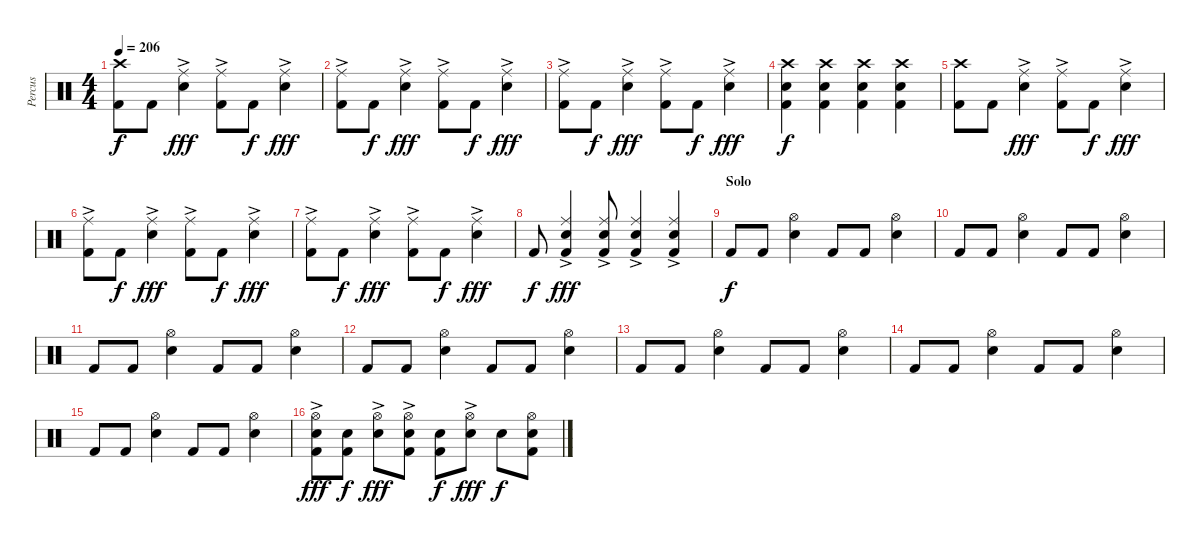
\track ("Percus" "Percus") {instrument percussion}
\staff {score}
\articulation defaults
\ts (4 4)
\tempo 206
\clef neutral
\ks c
("Crash high (hit)" "Kick (hit) 2").8{dy f} "Kick (hit) 2".8 ("Ride (middle)"{ac} "Snare (hit) 2").4{dy fff} ("Ride (middle)"{ac} "Kick (hit) 2").8 "Kick (hit) 2".8{dy f} ("Ride (middle)"{ac} "Snare (hit) 2").4{dy fff} |
("Ride (middle)"{ac} "Kick (hit) 2").8 "Kick (hit) 2".8{dy f} ("Ride (middle)"{ac} "Snare (hit) 2").4{dy fff} ("Ride (middle)"{ac} "Kick (hit) 2").8 "Kick (hit) 2".8{dy f} ("Ride (middle)"{ac} "Snare (hit) 2").4{dy fff} |
("Ride (middle)"{ac} "Kick (hit) 2").8 "Kick (hit) 2".8{dy f} ("Ride (middle)"{ac} "Snare (hit) 2").4{dy fff} ("Ride (middle)"{ac} "Kick (hit) 2").8 "Kick (hit) 2".8{dy f} ("Ride (middle)"{ac} "Snare (hit) 2").4{dy fff} |
("Crash high (hit)" "Snare (hit) 2" "Kick (hit) 2").4{dy f} ("Crash high (hit)" "Snare (hit) 2" "Kick (hit) 2").4 ("Crash high (hit)" "Snare (hit) 2" "Kick (hit) 2").4 ("Crash high (hit)" "Snare (hit) 2" "Kick (hit) 2").4 |
("Crash high (hit)" "Kick (hit) 2").8 "Kick (hit) 2".8 ("Ride (middle)"{ac} "Snare (hit) 2").4{dy fff} ("Ride (middle)"{ac} "Kick (hit) 2").8 "Kick (hit) 2".8{dy f} ("Ride (middle)"{ac} "Snare (hit) 2").4{dy fff} |
("Ride (middle)"{ac} "Kick (hit) 2").8 "Kick (hit) 2".8{dy f} ("Ride (middle)"{ac} "Snare (hit) 2").4{dy fff} ("Ride (middle)"{ac} "Kick (hit) 2").8 "Kick (hit) 2".8{dy f} ("Ride (middle)"{ac} "Snare (hit) 2").4{dy fff} |
("Ride (middle)"{ac} "Kick (hit) 2").8 "Kick (hit) 2".8{dy f} ("Ride (middle)"{ac} "Snare (hit) 2").4{dy fff} ("Ride (middle)"{ac} "Kick (hit) 2").8 "Kick (hit) 2".8{dy f} ("Ride (middle)"{ac} "Snare (hit) 2").4{dy fff} |
"Kick (hit) 2".8{dy f} ("Ride (middle)"{ac} "Snare (hit) 2" "Kick (hit) 2").4{dy fff} ("Ride (middle)"{ac} "Snare (hit) 2" "Kick (hit) 2").8 ("Ride (middle)"{ac} "Snare (hit) 2" "Kick (hit) 2").4 ("Ride (middle)"{ac} "Snare (hit) 2" "Kick (hit) 2").4 |
\section ("" "Solo")
"Kick (hit) 2".8{dy f} "Kick (hit) 2".8 ("Hi-Hat (open)" "Snare (hit) 2").4 "Kick (hit) 2".8 "Kick (hit) 2".8 ("Hi-Hat (open)" "Snare (hit) 2").4 |
"Kick (hit) 2".8 "Kick (hit) 2".8 ("Hi-Hat (open)" "Snare (hit) 2").4 "Kick (hit) 2".8 "Kick (hit) 2".8 ("Hi-Hat (open)" "Snare (hit) 2").4 |
"Kick (hit) 2".8 "Kick (hit) 2".8 ("Hi-Hat (open)" "Snare (hit) 2").4 "Kick (hit) 2".8 "Kick (hit) 2".8 ("Hi-Hat (open)" "Snare (hit) 2").4 |
"Kick (hit) 2".8 "Kick (hit) 2".8 ("Hi-Hat (open)" "Snare (hit) 2").4 "Kick (hit) 2".8 "Kick (hit) 2".8 ("Hi-Hat (open)" "Snare (hit) 2").4 |
"Kick (hit) 2".8 "Kick (hit) 2".8 ("Hi-Hat (open)" "Snare (hit) 2").4 "Kick (hit) 2".8 "Kick (hit) 2".8 ("Hi-Hat (open)" "Snare (hit) 2").4 |
"Kick (hit) 2".8 "Kick (hit) 2".8 ("Hi-Hat (open)" "Snare (hit) 2").4 "Kick (hit) 2".8 "Kick (hit) 2".8 ("Hi-Hat (open)" "Snare (hit) 2").4 |
"Kick (hit) 2".8 "Kick (hit) 2".8 ("Hi-Hat (open)" "Snare (hit) 2").4 "Kick (hit) 2".8 "Kick (hit) 2".8 ("Hi-Hat (open)" "Snare (hit) 2").4 |
("Hi-Hat (open)"{ac} "Snare (hit) 2" "Kick (hit) 2").8{dy fff} ("Snare (hit) 2" "Kick (hit) 2").8{dy f} ("Hi-Hat (open)"{ac} "Snare (hit) 2").8{dy fff} ("Hi-Hat (open)"{ac} "Snare (hit) 2" "Kick (hit) 2").8 ("Snare (hit) 2" "Kick (hit) 2").8{dy f} ("Hi-Hat (open)"{ac} "Snare (hit) 2").8{dy fff} "Snare (hit) 2".8{dy f} ("Hi-Hat (open)" "Snare (hit) 2" "Kick (hit) 2").8
